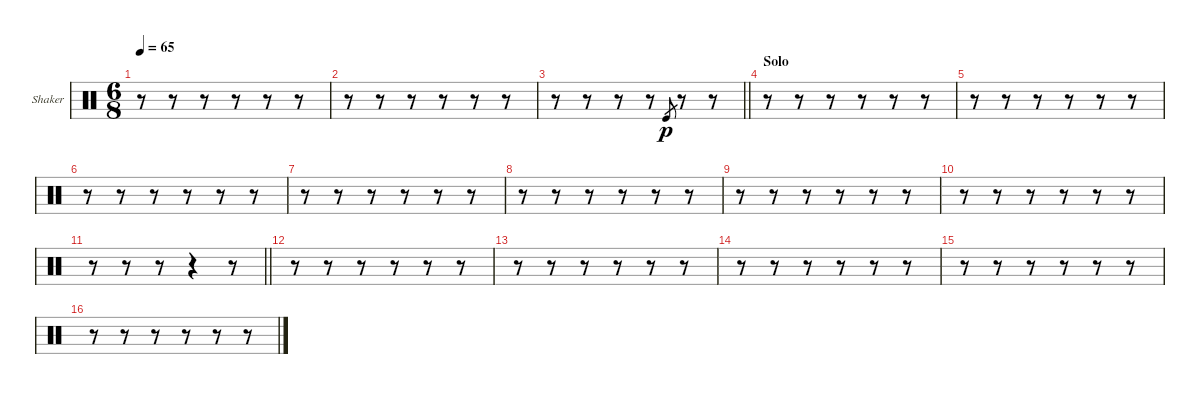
\bracketExtendMode groupsimilarinstruments
\firstSystemTrackNameOrientation horizontal
\otherSystemsTrackNameOrientation horizontal
\track ("Shaker" "Shaker") {instrument percussion}
\staff {score}
\articulation defaults
\ts (6 8)
\tempo 65
\clef neutral
\ks c
r.8{dy p} r.8 r.8 r.8 r.8 r.8 |
r.8 r.8 r.8 r.8 r.8 r.8 |
\barLineRight lightlight
r.8 r.8 r.8 r.8 "Kick (hit)".8{gr} r.8 r.8 |
\section ("" "Solo")
r.8 r.8 r.8 r.8 r.8 r.8 |
r.8 r.8 r.8 r.8 r.8 r.8 |
r.8 r.8 r.8 r.8 r.8 r.8 |
r.8 r.8 r.8 r.8 r.8 r.8 |
r.8 r.8 r.8 r.8 r.8 r.8 |
r.8 r.8 r.8 r.8 r.8 r.8 |
r.8 r.8 r.8 r.8 r.8 r.8 |
\barLineRight lightlight
r.8 r.8 r.8 r.4 r.8 |
\section ("" "")
r.8 r.8 r.8 r.8 r.8 r.8 |
r.8 r.8 r.8 r.8 r.8 r.8 |
r.8 r.8 r.8 r.8 r.8 r.8 |
r.8 r.8 r.8 r.8 r.8 r.8 |
r.8 r.8 r.8 r.8 r.8 r.8
